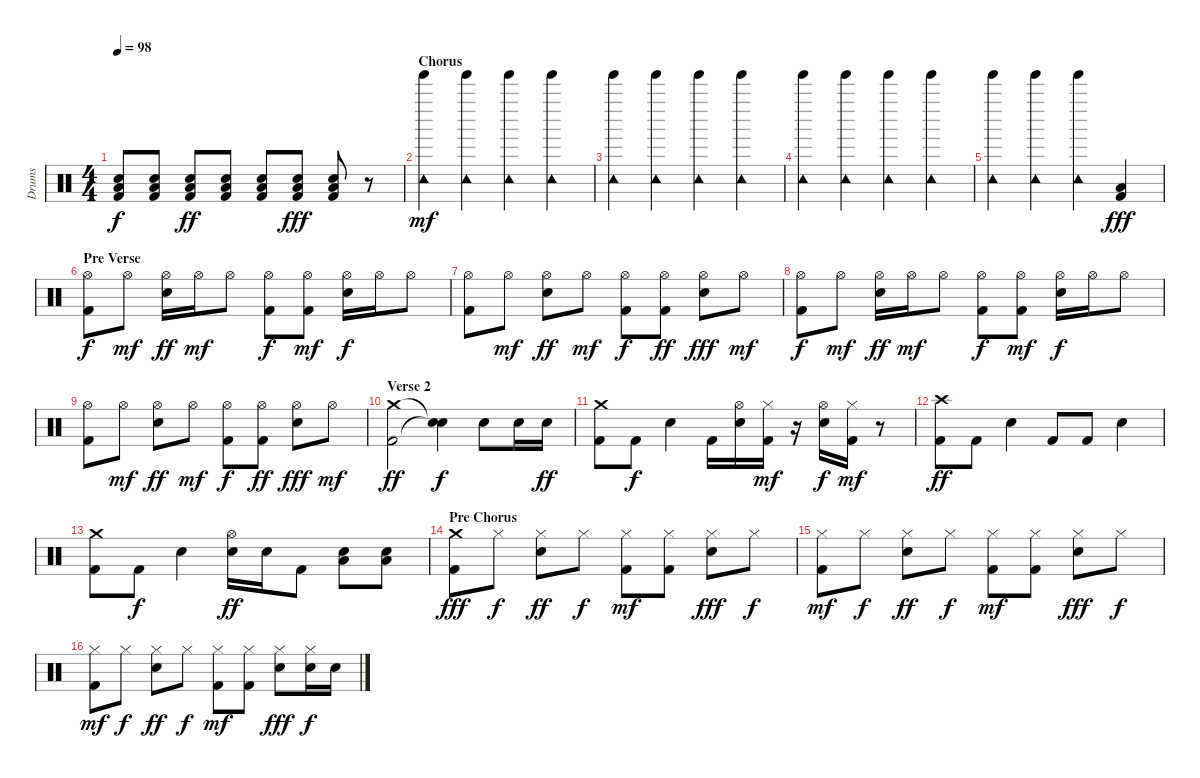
\track ("Drums" "Drums") {instrument percussion}
\staff {score}
\articulation defaults
\ts (4 4)
\tempo 98
\clef neutral
\ks c
("Electric Snare (hit)" "Low Floor Tom (hit)" "Kick (hit) 2").8{dy f} ("Electric Snare (hit)" "Low Floor Tom (hit)" "Kick (hit) 2").8 ("Electric Snare (hit)" "Low Floor Tom (hit)" "Kick (hit) 2").8{dy ff} ("Electric Snare (hit)" "Low Floor Tom (hit)" "Kick (hit) 2").8 ("Electric Snare (hit)" "Low Floor Tom (hit)" "Kick (hit) 2").8 ("Electric Snare (hit)" "Low Floor Tom (hit)" "Kick (hit) 2").8{dy fff} ("Electric Snare (hit)" "Low Floor Tom (hit)" "Kick (hit) 2").8 r.8 |
\section ("" "Chorus")
("Tambourine (hit)" "Tinkle Bell (hit)").4{dy mf} ("Tambourine (hit)" "Tinkle Bell (hit)").4 ("Tambourine (hit)" "Tinkle Bell (hit)").4 ("Tambourine (hit)" "Tinkle Bell (hit)").4 |
("Tambourine (hit)" "Tinkle Bell (hit)").4 ("Tambourine (hit)" "Tinkle Bell (hit)").4 ("Tambourine (hit)" "Tinkle Bell (hit)").4 ("Tambourine (hit)" "Tinkle Bell (hit)").4 |
("Tambourine (hit)" "Tinkle Bell (hit)").4 ("Tambourine (hit)" "Tinkle Bell (hit)").4 ("Tambourine (hit)" "Tinkle Bell (hit)").4 ("Tambourine (hit)" "Tinkle Bell (hit)").4 |
("Tambourine (hit)" "Tinkle Bell (hit)").4 ("Tambourine (hit)" "Tinkle Bell (hit)").4 ("Tambourine (hit)" "Tinkle Bell (hit)").4 ("Low Floor Tom (hit)" "Kick (hit) 2").4{dy fff} |
\section ("" "Pre Verse")
("Hi-Hat (open)" "Kick (hit) 2").8{dy f} "Hi-Hat (open)".8{dy mf} ("Hi-Hat (open)" "Electric Snare (hit)").16{dy ff} "Hi-Hat (open)".16{dy mf} "Hi-Hat (open)".8 ("Hi-Hat (open)" "Kick (hit) 2").8{dy f} ("Hi-Hat (open)" "Kick (hit) 2").8{dy mf} ("Hi-Hat (open)" "Electric Snare (hit)").16{dy f} "Hi-Hat (open)".16 "Hi-Hat (open)".8 |
("Hi-Hat (open)" "Kick (hit) 2").8 "Hi-Hat (open)".8{dy mf} ("Hi-Hat (open)" "Electric Snare (hit)").8{dy ff} "Hi-Hat (open)".8{dy mf} ("Hi-Hat (open)" "Kick (hit) 2").8{dy f} ("Hi-Hat (open)" "Kick (hit) 2").8{dy ff} ("Hi-Hat (open)" "Electric Snare (hit)").8{dy fff} "Hi-Hat (open)".8{dy mf} |
("Hi-Hat (open)" "Kick (hit) 2").8{dy f} "Hi-Hat (open)".8{dy mf} ("Hi-Hat (open)" "Electric Snare (hit)").16{dy ff} "Hi-Hat (open)".16{dy mf} "Hi-Hat (open)".8 ("Hi-Hat (open)" "Kick (hit) 2").8{dy f} ("Hi-Hat (open)" "Kick (hit) 2").8{dy mf} ("Hi-Hat (open)" "Electric Snare (hit)").16{dy f} "Hi-Hat (open)".16 "Hi-Hat (open)".8 |
("Hi-Hat (open)" "Kick (hit) 2").8 "Hi-Hat (open)".8{dy mf} ("Hi-Hat (open)" "Electric Snare (hit)").8{dy ff} "Hi-Hat (open)".8{dy mf} ("Hi-Hat (open)" "Kick (hit) 2").8{dy f} ("Hi-Hat (open)" "Kick (hit) 2").8{dy ff} ("Hi-Hat (open)" "Electric Snare (hit)").8{dy fff} "Hi-Hat (open)".8{dy mf} |
\section ("" "Verse 2")
("Crash medium (hit)" "Kick (hit) 2").2{dy ff} ("Snare (hit)"{t} "Snare (hit)"{t}).4{dy f} "Electric Snare (hit)".8 "Electric Snare (hit)".16 "Electric Snare (hit)".16{dy ff} |
("Crash medium (hit)" "Kick (hit) 2").8 "Kick (hit) 2".8{dy f} "Electric Snare (hit)".4 "Kick (hit) 2".16 ("Hi-Hat (open)" "Electric Snare (hit)").16 ("Hi-Hat (closed)" "Kick (hit) 2").16{dy mf} r.16 ("Hi-Hat (open)" "Electric Snare (hit)").16{dy f} ("Hi-Hat (closed)" "Kick (hit) 2").16{dy mf} r.8 |
("Crash high (hit)" "Kick (hit) 2").8{dy ff} "Kick (hit) 2".8 "Electric Snare (hit)".4 "Kick (hit) 2".8 "Kick (hit) 2".8 "Electric Snare (hit)".4 |
("Crash medium (hit)" "Kick (hit) 2").8 "Kick (hit) 2".8{dy f} "Electric Snare (hit)".4 ("Hi-Hat (open)" "Electric Snare (hit)").16{dy ff} "Electric Snare (hit)".16 "Kick (hit) 2".8 ("Electric Snare (hit)" "Low Floor Tom (hit)").8 ("Electric Snare (hit)" "Low Floor Tom (hit)").8 |
\section ("" "Pre Chorus")
("Crash medium (hit)" "Kick (hit) 2").8{dy fff} "Hi-Hat (closed)".8{dy f} ("Hi-Hat (closed)" "Electric Snare (hit)").8{dy ff} "Hi-Hat (closed)".8{dy f} ("Hi-Hat (closed)" "Kick (hit) 2").8{dy mf} ("Hi-Hat (closed)" "Kick (hit) 2").8 ("Hi-Hat (closed)" "Electric Snare (hit)").8{dy fff} "Hi-Hat (closed)".8{dy f} |
("Hi-Hat (closed)" "Kick (hit) 2").8{dy mf} "Hi-Hat (closed)".8{dy f} ("Hi-Hat (closed)" "Electric Snare (hit)").8{dy ff} "Hi-Hat (closed)".8{dy f} ("Hi-Hat (closed)" "Kick (hit) 2").8{dy mf} ("Hi-Hat (closed)" "Kick (hit) 2").8 ("Hi-Hat (closed)" "Electric Snare (hit)").8{dy fff} "Hi-Hat (closed)".8{dy f} |
("Hi-Hat (closed)" "Kick (hit) 2").8{dy mf} "Hi-Hat (closed)".8{dy f} ("Hi-Hat (closed)" "Electric Snare (hit)").8{dy ff} "Hi-Hat (closed)".8{dy f} ("Hi-Hat (closed)" "Kick (hit) 2").8{dy mf} ("Hi-Hat (closed)" "Kick (hit) 2").8 ("Hi-Hat (closed)" "Electric Snare (hit)").8{dy fff} ("Hi-Hat (closed)" "Electric Snare (hit)").16{dy f} "Electric Snare (hit)".16
